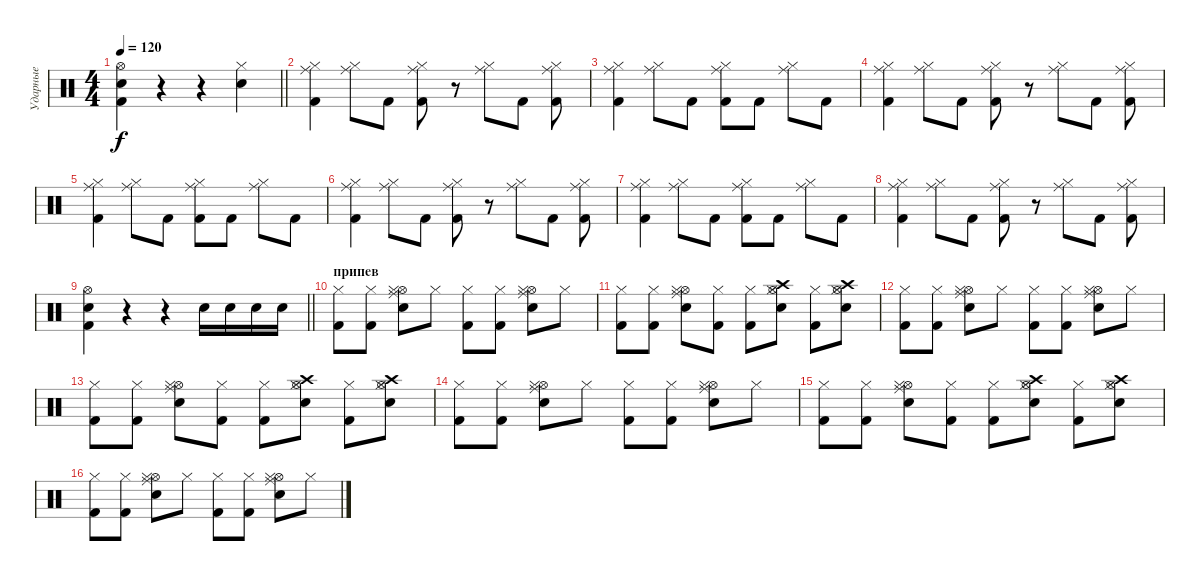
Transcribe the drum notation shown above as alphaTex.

\track ("Ударные" "Ударные") {instrument percussion}
\staff {score}
\articulation defaults
\ts (4 4)
\tempo 120
\clef neutral
\barLineRight lightlight
\ks c
("Hi-Hat (open)" "Kick (hit) 2" "Snare (hit) 2").4{dy f} r.4 r.4 ("Hi-Hat (closed)" "Snare (hit) 2").4 |
("Hi-Hat (closed)" "Ride (middle)" "Kick (hit) 2").4 ("Hi-Hat (closed)" "Ride (middle)").8 "Kick (hit) 2".8 ("Hi-Hat (closed)" "Ride (middle)" "Kick (hit) 2").8 r.8 ("Hi-Hat (closed)" "Ride (middle)").8 "Kick (hit) 2".8 ("Hi-Hat (closed)" "Ride (middle)" "Kick (hit) 2").8 |
("Hi-Hat (closed)" "Ride (middle)" "Kick (hit) 2").4 ("Hi-Hat (closed)" "Ride (middle)").8 "Kick (hit) 2".8 ("Hi-Hat (closed)" "Ride (middle)" "Kick (hit) 2").8 "Kick (hit) 2".8 ("Hi-Hat (closed)" "Ride (middle)").8 "Kick (hit) 2".8 |
("Hi-Hat (closed)" "Ride (middle)" "Kick (hit) 2").4 ("Hi-Hat (closed)" "Ride (middle)").8 "Kick (hit) 2".8 ("Hi-Hat (closed)" "Ride (middle)" "Kick (hit) 2").8 r.8 ("Hi-Hat (closed)" "Ride (middle)").8 "Kick (hit) 2".8 ("Hi-Hat (closed)" "Ride (middle)" "Kick (hit) 2").8 |
("Hi-Hat (closed)" "Ride (middle)" "Kick (hit) 2").4 ("Hi-Hat (closed)" "Ride (middle)").8 "Kick (hit) 2".8 ("Hi-Hat (closed)" "Ride (middle)" "Kick (hit) 2").8 "Kick (hit) 2".8 ("Hi-Hat (closed)" "Ride (middle)").8 "Kick (hit) 2".8 |
("Hi-Hat (closed)" "Ride (middle)" "Kick (hit) 2").4 ("Hi-Hat (closed)" "Ride (middle)").8 "Kick (hit) 2".8 ("Hi-Hat (closed)" "Ride (middle)" "Kick (hit) 2").8 r.8 ("Hi-Hat (closed)" "Ride (middle)").8 "Kick (hit) 2".8 ("Hi-Hat (closed)" "Ride (middle)" "Kick (hit) 2").8 |
("Hi-Hat (closed)" "Ride (middle)" "Kick (hit) 2").4 ("Hi-Hat (closed)" "Ride (middle)").8 "Kick (hit) 2".8 ("Hi-Hat (closed)" "Ride (middle)" "Kick (hit) 2").8 "Kick (hit) 2".8 ("Hi-Hat (closed)" "Ride (middle)").8 "Kick (hit) 2".8 |
("Hi-Hat (closed)" "Ride (middle)" "Kick (hit) 2").4 ("Hi-Hat (closed)" "Ride (middle)").8 "Kick (hit) 2".8 ("Hi-Hat (closed)" "Ride (middle)" "Kick (hit) 2").8 r.8 ("Hi-Hat (closed)" "Ride (middle)").8 "Kick (hit) 2".8 ("Hi-Hat (closed)" "Ride (middle)" "Kick (hit) 2").8 |
\barLineRight lightlight
("Hi-Hat (open)" "Kick (hit) 2" "Snare (hit) 2").4 r.4 r.4 "Snare (hit) 2".16 "Snare (hit) 2".16 "Snare (hit) 2".16 "Snare (hit) 2".16 |
\section ("" "припев")
("Kick (hit) 2" "Hi-Hat (closed)").8 ("Kick (hit) 2" "Hi-Hat (closed)").8 ("Ride (middle)" "Hi-Hat (open)" "Hi-Hat (closed)" "Snare (hit) 2").8 "Hi-Hat (closed)".8 ("Kick (hit) 2" "Hi-Hat (closed)").8 ("Kick (hit) 2" "Hi-Hat (closed)").8 ("Ride (middle)" "Hi-Hat (open)" "Hi-Hat (closed)" "Snare (hit) 2").8 "Hi-Hat (closed)".8 |
("Kick (hit) 2" "Hi-Hat (closed)").8 ("Kick (hit) 2" "Hi-Hat (closed)").8 ("Ride (middle)" "Hi-Hat (open)" "Hi-Hat (closed)" "Snare (hit) 2").8 ("Kick (hit) 2" "Hi-Hat (closed)").8 ("Kick (hit) 2" "Hi-Hat (closed)").8 ("Crash high (hit)" "Hi-Hat (open)" "Hi-Hat (closed)" "Snare (hit) 2").8 ("Kick (hit) 2" "Hi-Hat (closed)").8 ("Crash high (hit)" "Hi-Hat (open)" "Hi-Hat (closed)" "Snare (hit) 2").8 |
("Kick (hit) 2" "Hi-Hat (closed)").8 ("Kick (hit) 2" "Hi-Hat (closed)").8 ("Ride (middle)" "Hi-Hat (open)" "Hi-Hat (closed)" "Snare (hit) 2").8 "Hi-Hat (closed)".8 ("Kick (hit) 2" "Hi-Hat (closed)").8 ("Kick (hit) 2" "Hi-Hat (closed)").8 ("Ride (middle)" "Hi-Hat (open)" "Hi-Hat (closed)" "Snare (hit) 2").8 "Hi-Hat (closed)".8 |
("Kick (hit) 2" "Hi-Hat (closed)").8 ("Kick (hit) 2" "Hi-Hat (closed)").8 ("Ride (middle)" "Hi-Hat (open)" "Hi-Hat (closed)" "Snare (hit) 2").8 ("Kick (hit) 2" "Hi-Hat (closed)").8 ("Kick (hit) 2" "Hi-Hat (closed)").8 ("Crash high (hit)" "Hi-Hat (open)" "Hi-Hat (closed)" "Snare (hit) 2").8 ("Kick (hit) 2" "Hi-Hat (closed)").8 ("Crash high (hit)" "Hi-Hat (open)" "Hi-Hat (closed)" "Snare (hit) 2").8 |
("Kick (hit) 2" "Hi-Hat (closed)").8 ("Kick (hit) 2" "Hi-Hat (closed)").8 ("Ride (middle)" "Hi-Hat (open)" "Hi-Hat (closed)" "Snare (hit) 2").8 "Hi-Hat (closed)".8 ("Kick (hit) 2" "Hi-Hat (closed)").8 ("Kick (hit) 2" "Hi-Hat (closed)").8 ("Ride (middle)" "Hi-Hat (open)" "Hi-Hat (closed)" "Snare (hit) 2").8 "Hi-Hat (closed)".8 |
("Kick (hit) 2" "Hi-Hat (closed)").8 ("Kick (hit) 2" "Hi-Hat (closed)").8 ("Ride (middle)" "Hi-Hat (open)" "Hi-Hat (closed)" "Snare (hit) 2").8 ("Kick (hit) 2" "Hi-Hat (closed)").8 ("Kick (hit) 2" "Hi-Hat (closed)").8 ("Crash high (hit)" "Hi-Hat (open)" "Hi-Hat (closed)" "Snare (hit) 2").8 ("Kick (hit) 2" "Hi-Hat (closed)").8 ("Crash high (hit)" "Hi-Hat (open)" "Hi-Hat (closed)" "Snare (hit) 2").8 |
("Kick (hit) 2" "Hi-Hat (closed)").8 ("Kick (hit) 2" "Hi-Hat (closed)").8 ("Ride (middle)" "Hi-Hat (open)" "Hi-Hat (closed)" "Snare (hit) 2").8 "Hi-Hat (closed)".8 ("Kick (hit) 2" "Hi-Hat (closed)").8 ("Kick (hit) 2" "Hi-Hat (closed)").8 ("Ride (middle)" "Hi-Hat (open)" "Hi-Hat (closed)" "Snare (hit) 2").8 "Hi-Hat (closed)".8
